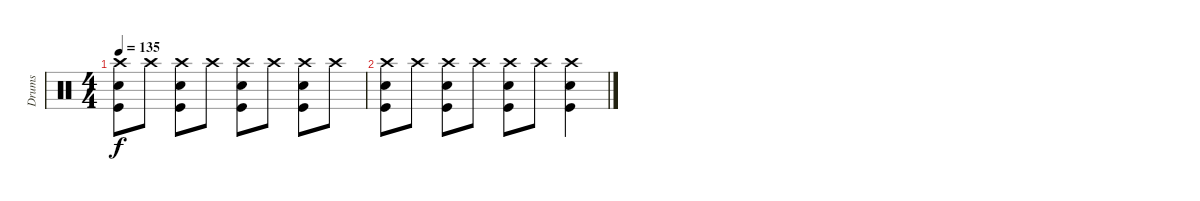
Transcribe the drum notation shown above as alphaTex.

\track ("Drums" "Drums") {instrument percussion}
\staff {score}
\articulation defaults
\ts (4 4)
\tempo 135
\clef neutral
\ks c
("Crash high (hit)" "Snare (hit) 2" "Kick (hit)").8{dy f} "Crash high (hit)".8 ("Crash high (hit)" "Snare (hit) 2" "Kick (hit)").8 "Crash high (hit)".8 ("Crash high (hit)" "Snare (hit) 2" "Kick (hit)").8 "Crash high (hit)".8 ("Crash high (hit)" "Snare (hit) 2" "Kick (hit)").8 "Crash high (hit)".8 |
("Crash high (hit)" "Snare (hit) 2" "Kick (hit)").8 "Crash high (hit)".8 ("Crash high (hit)" "Snare (hit) 2" "Kick (hit)").8 "Crash high (hit)".8 ("Crash high (hit)" "Snare (hit) 2" "Kick (hit)").8 "Crash high (hit)".8 ("Crash high (hit)" "Snare (hit) 2" "Kick (hit)").4
